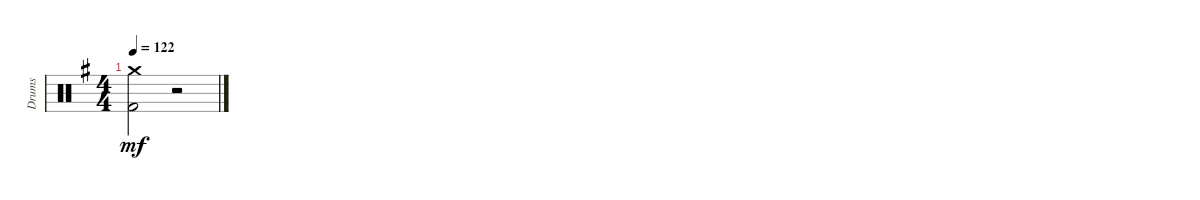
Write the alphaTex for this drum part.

\track ("Drums" "Drums") {instrument percussion}
\staff {score}
\articulation defaults
\ts (4 4)
\tempo 122
\clef neutral
\ks eminor
("Crash medium (hit)" "Kick (hit) 2").2{dy mf} r.2
